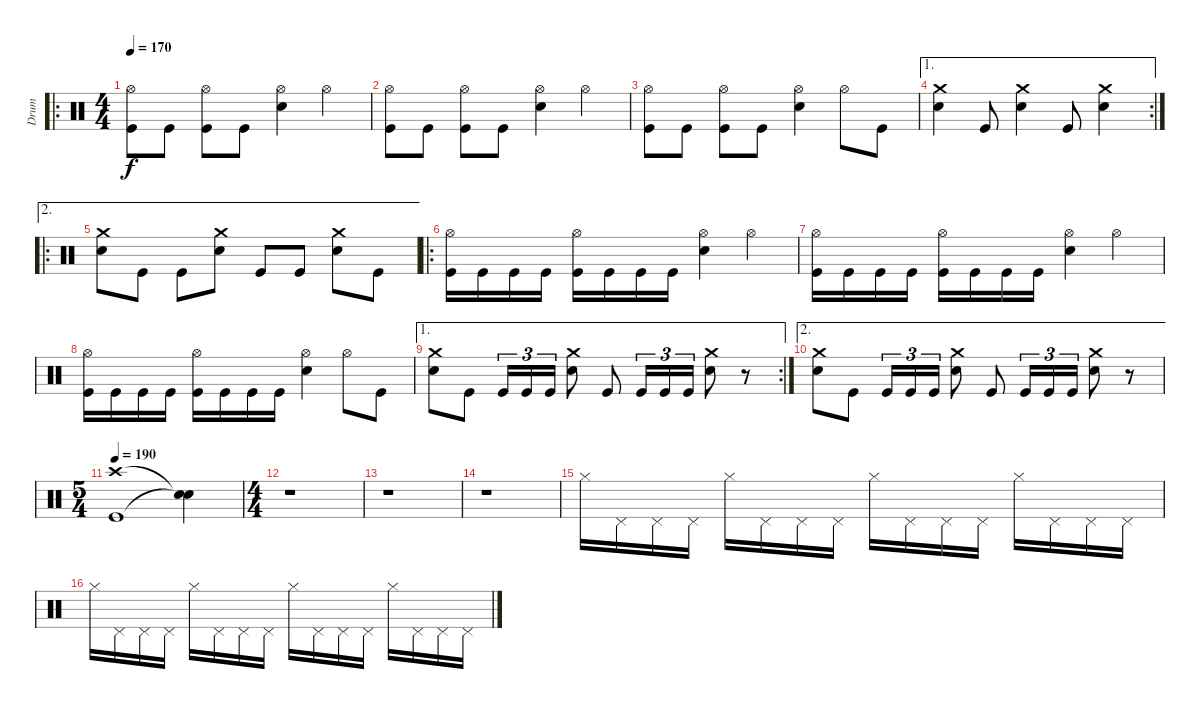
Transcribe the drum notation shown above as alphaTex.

\track ("Drum" "Drum") {instrument percussion}
\staff {score}
\articulation defaults
\ro
\ts (4 4)
\tempo 170
\clef neutral
\ks c
("Kick (hit)" "Hi-Hat (open)").8{dy f} "Kick (hit)".8 ("Kick (hit)" "Hi-Hat (open)").8 "Kick (hit)".8 ("Electric Snare (hit)" "Hi-Hat (open)").4 "Hi-Hat (open)".4 |
("Kick (hit)" "Hi-Hat (open)").8 "Kick (hit)".8 ("Kick (hit)" "Hi-Hat (open)").8 "Kick (hit)".8 ("Electric Snare (hit)" "Hi-Hat (open)").4 "Hi-Hat (open)".4 |
("Kick (hit)" "Hi-Hat (open)").8 "Kick (hit)".8 ("Kick (hit)" "Hi-Hat (open)").8 "Kick (hit)".8 ("Electric Snare (hit)" "Hi-Hat (open)").4 "Hi-Hat (open)".8 "Kick (hit)".8 |
\ae 1
\rc 2
("Electric Snare (hit)" "Crash medium (hit)").4 "Kick (hit)".8 ("Electric Snare (hit)" "Crash medium (hit)").4 "Kick (hit)".8 ("Electric Snare (hit)" "Crash medium (hit)").4 |
\ae 2
\ro
("Electric Snare (hit)" "Crash medium (hit)").8 "Kick (hit)".8 "Kick (hit)".8 ("Electric Snare (hit)" "Crash medium (hit)").8 "Kick (hit)".8 "Kick (hit)".8 ("Electric Snare (hit)" "Crash medium (hit)").8 "Kick (hit)".8 |
\ro
("Kick (hit)" "Hi-Hat (open)").16 "Kick (hit)".16 "Kick (hit)".16 "Kick (hit)".16 ("Kick (hit)" "Hi-Hat (open)").16 "Kick (hit)".16 "Kick (hit)".16 "Kick (hit)".16 ("Electric Snare (hit)" "Hi-Hat (open)").4 "Hi-Hat (open)".4 |
("Kick (hit)" "Hi-Hat (open)").16 "Kick (hit)".16 "Kick (hit)".16 "Kick (hit)".16 ("Kick (hit)" "Hi-Hat (open)").16 "Kick (hit)".16 "Kick (hit)".16 "Kick (hit)".16 ("Electric Snare (hit)" "Hi-Hat (open)").4 "Hi-Hat (open)".4 |
("Kick (hit)" "Hi-Hat (open)").16 "Kick (hit)".16 "Kick (hit)".16 "Kick (hit)".16 ("Kick (hit)" "Hi-Hat (open)").16 "Kick (hit)".16 "Kick (hit)".16 "Kick (hit)".16 ("Electric Snare (hit)" "Hi-Hat (open)").4 "Hi-Hat (open)".8 "Kick (hit)".8 |
\ae 1
\rc 2
("Electric Snare (hit)" "Crash medium (hit)").8 "Kick (hit)".8 "Kick (hit)".16{tu (3 2)} "Kick (hit)".16{tu (3 2)} "Kick (hit)".16{tu (3 2)} ("Electric Snare (hit)" "Crash medium (hit)").8 "Kick (hit)".8 "Kick (hit)".16{tu (3 2)} "Kick (hit)".16{tu (3 2)} "Kick (hit)".16{tu (3 2)} ("Electric Snare (hit)" "Crash medium (hit)").8 r.8 |
\ae 2
("Electric Snare (hit)" "Crash medium (hit)").8 "Kick (hit)".8 "Kick (hit)".16{tu (3 2)} "Kick (hit)".16{tu (3 2)} "Kick (hit)".16{tu (3 2)} ("Electric Snare (hit)" "Crash medium (hit)").8 "Kick (hit)".8 "Kick (hit)".16{tu (3 2)} "Kick (hit)".16{tu (3 2)} "Kick (hit)".16{tu (3 2)} ("Electric Snare (hit)" "Crash medium (hit)").8 r.8 |
\ts (5 4)
\tempo 190
("Kick (hit)" "Crash high (hit)").1 ("Snare (hit)"{t} "Snare (hit)"{t}).4 |
\ts (4 4)
r.1 |
r.1 |
r.1 |
"Hi-Hat (closed)".16 "Pedal Hi-Hat (hit)".16 "Pedal Hi-Hat (hit)".16 "Pedal Hi-Hat (hit)".16 "Hi-Hat (closed)".16 "Pedal Hi-Hat (hit)".16 "Pedal Hi-Hat (hit)".16 "Pedal Hi-Hat (hit)".16 "Hi-Hat (closed)".16 "Pedal Hi-Hat (hit)".16 "Pedal Hi-Hat (hit)".16 "Pedal Hi-Hat (hit)".16 "Hi-Hat (closed)".16 "Pedal Hi-Hat (hit)".16 "Pedal Hi-Hat (hit)".16 "Pedal Hi-Hat (hit)".16 |
"Hi-Hat (closed)".16 "Pedal Hi-Hat (hit)".16 "Pedal Hi-Hat (hit)".16 "Pedal Hi-Hat (hit)".16 "Hi-Hat (closed)".16 "Pedal Hi-Hat (hit)".16 "Pedal Hi-Hat (hit)".16 "Pedal Hi-Hat (hit)".16 "Hi-Hat (closed)".16 "Pedal Hi-Hat (hit)".16 "Pedal Hi-Hat (hit)".16 "Pedal Hi-Hat (hit)".16 "Hi-Hat (closed)".16 "Pedal Hi-Hat (hit)".16 "Pedal Hi-Hat (hit)".16 "Pedal Hi-Hat (hit)".16
